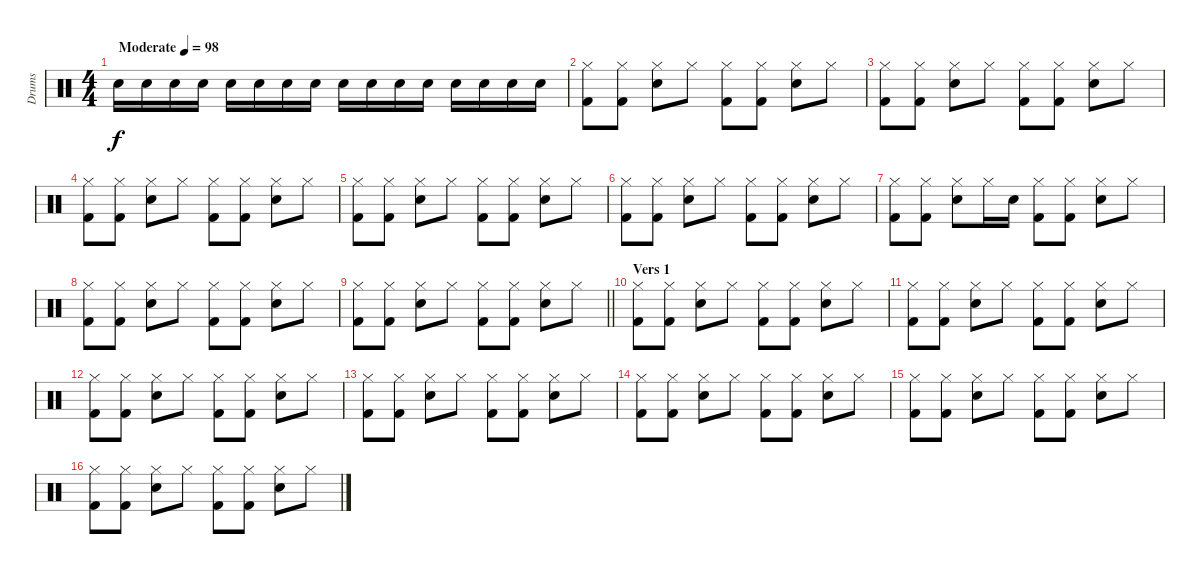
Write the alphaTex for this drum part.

\track ("Drums" "Drums") {instrument percussion}
\staff {score}
\articulation defaults
\ts (4 4)
\tempo (98 "Moderate")
\clef neutral
\ks c "Electric Snare (hit)".16{dy f} "Electric Snare (hit)".16 "Electric Snare (hit)".16 "Electric Snare (hit)".16 "Electric Snare (hit)".16 "Electric Snare (hit)".16 "Electric Snare (hit)".16 "Electric Snare (hit)".16 "Electric Snare (hit)".16 "Electric Snare (hit)".16 "Electric Snare (hit)".16 "Electric Snare (hit)".16 "Electric Snare (hit)".16 "Electric Snare (hit)".16 "Electric Snare (hit)".16 "Electric Snare (hit)".16
|
("Hi-Hat (closed)" "Kick (hit) 2").8 ("Hi-Hat (closed)" "Kick (hit) 2").8 ("Hi-Hat (closed)" "Electric Snare (hit)").8 "Hi-Hat (closed)".8 ("Hi-Hat (closed)" "Kick (hit) 2").8 ("Hi-Hat (closed)" "Kick (hit) 2").8 ("Hi-Hat (closed)" "Electric Snare (hit)").8 "Hi-Hat (closed)".8 |
("Hi-Hat (closed)" "Kick (hit) 2").8 ("Hi-Hat (closed)" "Kick (hit) 2").8 ("Hi-Hat (closed)" "Electric Snare (hit)").8 "Hi-Hat (closed)".8 ("Hi-Hat (closed)" "Kick (hit) 2").8 ("Hi-Hat (closed)" "Kick (hit) 2").8 ("Hi-Hat (closed)" "Electric Snare (hit)").8 "Hi-Hat (closed)".8 |
("Hi-Hat (closed)" "Kick (hit) 2").8 ("Hi-Hat (closed)" "Kick (hit) 2").8 ("Hi-Hat (closed)" "Electric Snare (hit)").8 "Hi-Hat (closed)".8 ("Hi-Hat (closed)" "Kick (hit) 2").8 ("Hi-Hat (closed)" "Kick (hit) 2").8 ("Hi-Hat (closed)" "Electric Snare (hit)").8 "Hi-Hat (closed)".8 |
("Hi-Hat (closed)" "Kick (hit) 2").8 ("Hi-Hat (closed)" "Kick (hit) 2").8 ("Hi-Hat (closed)" "Electric Snare (hit)").8 "Hi-Hat (closed)".8 ("Hi-Hat (closed)" "Kick (hit) 2").8 ("Hi-Hat (closed)" "Kick (hit) 2").8 ("Hi-Hat (closed)" "Electric Snare (hit)").8 "Hi-Hat (closed)".8 |
("Hi-Hat (closed)" "Kick (hit) 2").8 ("Hi-Hat (closed)" "Kick (hit) 2").8 ("Hi-Hat (closed)" "Electric Snare (hit)").8 "Hi-Hat (closed)".8 ("Hi-Hat (closed)" "Kick (hit) 2").8 ("Hi-Hat (closed)" "Kick (hit) 2").8 ("Hi-Hat (closed)" "Electric Snare (hit)").8 "Hi-Hat (closed)".8 |
("Hi-Hat (closed)" "Kick (hit) 2").8 ("Hi-Hat (closed)" "Kick (hit) 2").8 ("Hi-Hat (closed)" "Electric Snare (hit)").8 "Hi-Hat (closed)".16 "Electric Snare (hit)".16 ("Hi-Hat (closed)" "Kick (hit) 2").8 ("Hi-Hat (closed)" "Kick (hit) 2").8 ("Hi-Hat (closed)" "Electric Snare (hit)").8 "Hi-Hat (closed)".8 |
("Hi-Hat (closed)" "Kick (hit) 2").8 ("Hi-Hat (closed)" "Kick (hit) 2").8 ("Hi-Hat (closed)" "Electric Snare (hit)").8 "Hi-Hat (closed)".8 ("Hi-Hat (closed)" "Kick (hit) 2").8 ("Hi-Hat (closed)" "Kick (hit) 2").8 ("Hi-Hat (closed)" "Electric Snare (hit)").8 "Hi-Hat (closed)".8 |
\barLineRight lightlight
("Hi-Hat (closed)" "Kick (hit) 2").8 ("Hi-Hat (closed)" "Kick (hit) 2").8 ("Hi-Hat (closed)" "Electric Snare (hit)").8 "Hi-Hat (closed)".8 ("Hi-Hat (closed)" "Kick (hit) 2").8 ("Hi-Hat (closed)" "Kick (hit) 2").8 ("Hi-Hat (closed)" "Electric Snare (hit)").8 "Hi-Hat (closed)".8 |
\section ("" "Vers 1")
("Hi-Hat (closed)" "Kick (hit) 2").8 ("Hi-Hat (closed)" "Kick (hit) 2").8 ("Hi-Hat (closed)" "Electric Snare (hit)").8 "Hi-Hat (closed)".8 ("Hi-Hat (closed)" "Kick (hit) 2").8 ("Hi-Hat (closed)" "Kick (hit) 2").8 ("Hi-Hat (closed)" "Electric Snare (hit)").8 "Hi-Hat (closed)".8 |
("Hi-Hat (closed)" "Kick (hit) 2").8 ("Hi-Hat (closed)" "Kick (hit) 2").8 ("Hi-Hat (closed)" "Electric Snare (hit)").8 "Hi-Hat (closed)".8 ("Hi-Hat (closed)" "Kick (hit) 2").8 ("Hi-Hat (closed)" "Kick (hit) 2").8 ("Hi-Hat (closed)" "Electric Snare (hit)").8 "Hi-Hat (closed)".8 |
("Hi-Hat (closed)" "Kick (hit) 2").8 ("Hi-Hat (closed)" "Kick (hit) 2").8 ("Hi-Hat (closed)" "Electric Snare (hit)").8 "Hi-Hat (closed)".8 ("Hi-Hat (closed)" "Kick (hit) 2").8 ("Hi-Hat (closed)" "Kick (hit) 2").8 ("Hi-Hat (closed)" "Electric Snare (hit)").8 "Hi-Hat (closed)".8 |
("Hi-Hat (closed)" "Kick (hit) 2").8 ("Hi-Hat (closed)" "Kick (hit) 2").8 ("Hi-Hat (closed)" "Electric Snare (hit)").8 "Hi-Hat (closed)".8 ("Hi-Hat (closed)" "Kick (hit) 2").8 ("Hi-Hat (closed)" "Kick (hit) 2").8 ("Hi-Hat (closed)" "Electric Snare (hit)").8 "Hi-Hat (closed)".8 |
("Hi-Hat (closed)" "Kick (hit) 2").8 ("Hi-Hat (closed)" "Kick (hit) 2").8 ("Hi-Hat (closed)" "Electric Snare (hit)").8 "Hi-Hat (closed)".8 ("Hi-Hat (closed)" "Kick (hit) 2").8 ("Hi-Hat (closed)" "Kick (hit) 2").8 ("Hi-Hat (closed)" "Electric Snare (hit)").8 "Hi-Hat (closed)".8 |
("Hi-Hat (closed)" "Kick (hit) 2").8 ("Hi-Hat (closed)" "Kick (hit) 2").8 ("Hi-Hat (closed)" "Electric Snare (hit)").8 "Hi-Hat (closed)".8 ("Hi-Hat (closed)" "Kick (hit) 2").8 ("Hi-Hat (closed)" "Kick (hit) 2").8 ("Hi-Hat (closed)" "Electric Snare (hit)").8 "Hi-Hat (closed)".8 |
("Hi-Hat (closed)" "Kick (hit) 2").8 ("Hi-Hat (closed)" "Kick (hit) 2").8 ("Hi-Hat (closed)" "Electric Snare (hit)").8 "Hi-Hat (closed)".8 ("Hi-Hat (closed)" "Kick (hit) 2").8 ("Hi-Hat (closed)" "Kick (hit) 2").8 ("Hi-Hat (closed)" "Electric Snare (hit)").8 "Hi-Hat (closed)".8
